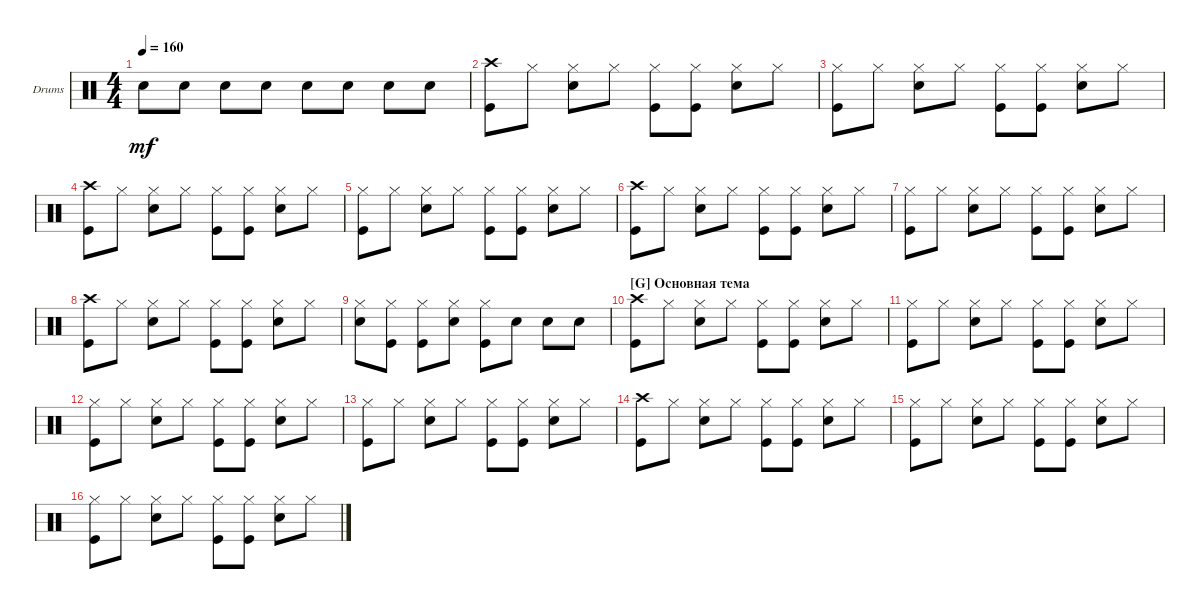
\bracketExtendMode groupsimilarinstruments
\firstSystemTrackNameOrientation horizontal
\otherSystemsTrackNameOrientation horizontal
\track ("Drumkit" "Drums") {instrument percussion}
\staff {score}
\articulation defaults
\ts (4 4)
\tempo 160
\clef neutral
\ks c "Snare (hit) 2".8{dy mf} "Snare (hit) 2".8 "Snare (hit) 2".8 "Snare (hit) 2".8 "Snare (hit) 2".8 "Snare (hit) 2".8 "Snare (hit) 2".8 "Snare (hit) 2".8
|
("Kick (hit)" "Crash high (hit)").8 "Hi-Hat (closed)".8 ("Hi-Hat (closed)" "Snare (hit) 2").8 "Hi-Hat (closed)".8 ("Kick (hit)" "Hi-Hat (closed)").8 ("Hi-Hat (closed)" "Kick (hit)").8 ("Hi-Hat (closed)" "Snare (hit) 2").8 "Hi-Hat (closed)".8 |
("Kick (hit)" "Hi-Hat (closed)").8 "Hi-Hat (closed)".8 ("Hi-Hat (closed)" "Snare (hit) 2").8 "Hi-Hat (closed)".8 ("Kick (hit)" "Hi-Hat (closed)").8 ("Hi-Hat (closed)" "Kick (hit)").8 ("Hi-Hat (closed)" "Snare (hit) 2").8 "Hi-Hat (closed)".8 |
("Kick (hit)" "Crash high (hit)").8 "Hi-Hat (closed)".8 ("Hi-Hat (closed)" "Snare (hit) 2").8 "Hi-Hat (closed)".8 ("Kick (hit)" "Hi-Hat (closed)").8 ("Hi-Hat (closed)" "Kick (hit)").8 ("Hi-Hat (closed)" "Snare (hit) 2").8 "Hi-Hat (closed)".8 |
("Kick (hit)" "Hi-Hat (closed)").8 "Hi-Hat (closed)".8 ("Hi-Hat (closed)" "Snare (hit) 2").8 "Hi-Hat (closed)".8 ("Kick (hit)" "Hi-Hat (closed)").8 ("Hi-Hat (closed)" "Kick (hit)").8 ("Hi-Hat (closed)" "Snare (hit) 2").8 "Hi-Hat (closed)".8 |
("Kick (hit)" "Crash high (hit)").8 "Hi-Hat (closed)".8 ("Hi-Hat (closed)" "Snare (hit) 2").8 "Hi-Hat (closed)".8 ("Kick (hit)" "Hi-Hat (closed)").8 ("Hi-Hat (closed)" "Kick (hit)").8 ("Hi-Hat (closed)" "Snare (hit) 2").8 "Hi-Hat (closed)".8 |
("Kick (hit)" "Hi-Hat (closed)").8 "Hi-Hat (closed)".8 ("Hi-Hat (closed)" "Snare (hit) 2").8 "Hi-Hat (closed)".8 ("Kick (hit)" "Hi-Hat (closed)").8 ("Hi-Hat (closed)" "Kick (hit)").8 ("Hi-Hat (closed)" "Snare (hit) 2").8 "Hi-Hat (closed)".8 |
("Kick (hit)" "Crash high (hit)").8 "Hi-Hat (closed)".8 ("Hi-Hat (closed)" "Snare (hit) 2").8 "Hi-Hat (closed)".8 ("Kick (hit)" "Hi-Hat (closed)").8 ("Hi-Hat (closed)" "Kick (hit)").8 ("Hi-Hat (closed)" "Snare (hit) 2").8 "Hi-Hat (closed)".8 |
("Hi-Hat (closed)" "Snare (hit) 2").8 ("Hi-Hat (closed)" "Kick (hit)").8 ("Hi-Hat (closed)" "Kick (hit)").8 ("Hi-Hat (closed)" "Snare (hit) 2").8 ("Kick (hit)" "Hi-Hat (closed)").8 "Snare (hit) 2".8 "Snare (hit) 2".8 "Snare (hit) 2".8 |
\section ("G" "Основная тема")
("Kick (hit)" "Crash high (hit)").8 "Hi-Hat (closed)".8 ("Hi-Hat (closed)" "Snare (hit) 2").8 "Hi-Hat (closed)".8 ("Kick (hit)" "Hi-Hat (closed)").8 ("Hi-Hat (closed)" "Kick (hit)").8 ("Hi-Hat (closed)" "Snare (hit) 2").8 "Hi-Hat (closed)".8 |
("Kick (hit)" "Hi-Hat (closed)").8 "Hi-Hat (closed)".8 ("Hi-Hat (closed)" "Snare (hit) 2").8 "Hi-Hat (closed)".8 ("Kick (hit)" "Hi-Hat (closed)").8 ("Hi-Hat (closed)" "Kick (hit)").8 ("Hi-Hat (closed)" "Snare (hit) 2").8 "Hi-Hat (closed)".8 |
("Kick (hit)" "Hi-Hat (closed)").8 "Hi-Hat (closed)".8 ("Hi-Hat (closed)" "Snare (hit) 2").8 "Hi-Hat (closed)".8 ("Kick (hit)" "Hi-Hat (closed)").8 ("Hi-Hat (closed)" "Kick (hit)").8 ("Hi-Hat (closed)" "Snare (hit) 2").8 "Hi-Hat (closed)".8 |
("Kick (hit)" "Hi-Hat (closed)").8 "Hi-Hat (closed)".8 ("Hi-Hat (closed)" "Snare (hit) 2").8 "Hi-Hat (closed)".8 ("Kick (hit)" "Hi-Hat (closed)").8 ("Hi-Hat (closed)" "Kick (hit)").8 ("Hi-Hat (closed)" "Snare (hit) 2").8 "Hi-Hat (closed)".8 |
("Kick (hit)" "Crash high (hit)").8 "Hi-Hat (closed)".8 ("Hi-Hat (closed)" "Snare (hit) 2").8 "Hi-Hat (closed)".8 ("Kick (hit)" "Hi-Hat (closed)").8 ("Hi-Hat (closed)" "Kick (hit)").8 ("Hi-Hat (closed)" "Snare (hit) 2").8 "Hi-Hat (closed)".8 |
("Kick (hit)" "Hi-Hat (closed)").8 "Hi-Hat (closed)".8 ("Hi-Hat (closed)" "Snare (hit) 2").8 "Hi-Hat (closed)".8 ("Kick (hit)" "Hi-Hat (closed)").8 ("Hi-Hat (closed)" "Kick (hit)").8 ("Hi-Hat (closed)" "Snare (hit) 2").8 "Hi-Hat (closed)".8 |
("Kick (hit)" "Hi-Hat (closed)").8 "Hi-Hat (closed)".8 ("Hi-Hat (closed)" "Snare (hit) 2").8 "Hi-Hat (closed)".8 ("Kick (hit)" "Hi-Hat (closed)").8 ("Hi-Hat (closed)" "Kick (hit)").8 ("Hi-Hat (closed)" "Snare (hit) 2").8 "Hi-Hat (closed)".8
